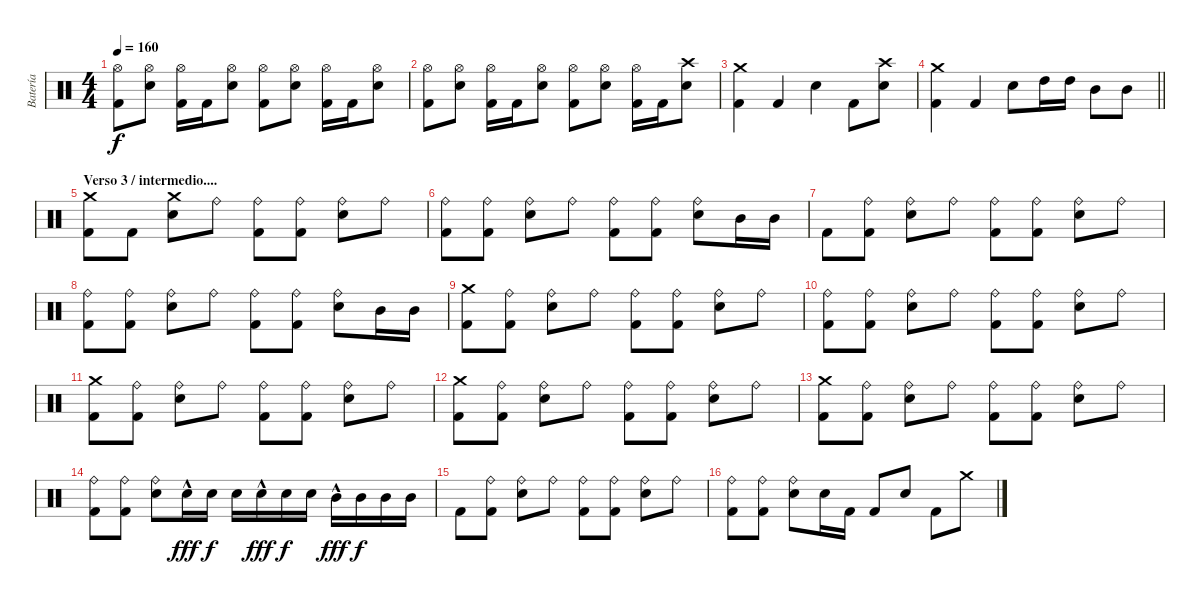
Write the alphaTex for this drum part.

\track ("Batería" "Batería") {instrument percussion}
\staff {score}
\articulation defaults
\ts (4 4)
\tempo 160
\clef neutral
\ks c
("Hi-Hat (open)" "Kick (hit) 2").8{dy f} ("Hi-Hat (open)" "Snare (hit) 2").8 ("Hi-Hat (open)" "Kick (hit) 2").16 "Kick (hit) 2".16 ("Hi-Hat (open)" "Snare (hit) 2").8 ("Hi-Hat (open)" "Kick (hit) 2").8 ("Hi-Hat (open)" "Snare (hit) 2").8 ("Hi-Hat (open)" "Kick (hit) 2").16 "Kick (hit) 2".16 ("Hi-Hat (open)" "Snare (hit) 2").8 |
("Hi-Hat (open)" "Kick (hit) 2").8 ("Hi-Hat (open)" "Snare (hit) 2").8 ("Hi-Hat (open)" "Kick (hit) 2").16 "Kick (hit) 2".16 ("Hi-Hat (open)" "Snare (hit) 2").8 ("Hi-Hat (open)" "Kick (hit) 2").8 ("Hi-Hat (open)" "Snare (hit) 2").8 ("Hi-Hat (open)" "Kick (hit) 2").16 "Kick (hit) 2".16 ("Crash high (hit)" "Snare (hit) 2").8 |
("Crash medium (hit)" "Kick (hit) 2").4 "Kick (hit) 2".4 "Snare (hit) 2".4 "Kick (hit) 2".8 ("Crash high (hit)" "Snare (hit) 2").8 |
\barLineRight lightlight
("Crash medium (hit)" "Kick (hit) 2").4 "Kick (hit) 2".4 "Snare (hit) 2".8 "High Tom (hit)".16 "High Tom (hit)".16 "Mid Tom (hit)".8 "Mid Tom (hit)".8 |
\section ("" "Verso 3 / intermedio....")
("Crash medium (hit)" "Kick (hit) 2").8 "Kick (hit) 2".8 ("Crash medium (hit)" "Snare (hit) 2").8 "Ride (bell)".8 ("Ride (bell)" "Kick (hit) 2").8 ("Ride (bell)" "Kick (hit) 2").8 ("Ride (bell)" "Snare (hit) 2").8 "Ride (bell)".8 |
("Ride (bell)" "Kick (hit) 2").8 ("Ride (bell)" "Kick (hit) 2").8 ("Ride (bell)" "Snare (hit) 2").8 "Ride (bell)".8 ("Ride (bell)" "Kick (hit) 2").8 ("Ride (bell)" "Kick (hit) 2").8 ("Ride (bell)" "Snare (hit) 2").8 "Mid Tom (hit)".16 "Mid Tom (hit)".16 |
"Kick (hit) 2".8 ("Ride (bell)" "Kick (hit) 2").8 ("Ride (bell)" "Snare (hit) 2").8 "Ride (bell)".8 ("Ride (bell)" "Kick (hit) 2").8 ("Ride (bell)" "Kick (hit) 2").8 ("Ride (bell)" "Snare (hit) 2").8 "Ride (bell)".8 |
("Ride (bell)" "Kick (hit) 2").8 ("Ride (bell)" "Kick (hit) 2").8 ("Ride (bell)" "Snare (hit) 2").8 "Ride (bell)".8 ("Ride (bell)" "Kick (hit) 2").8 ("Ride (bell)" "Kick (hit) 2").8 ("Ride (bell)" "Snare (hit) 2").8 "Mid Tom (hit)".16 "Mid Tom (hit)".16 |
("Crash medium (hit)" "Kick (hit) 2").8 ("Ride (bell)" "Kick (hit) 2").8 ("Ride (bell)" "Snare (hit) 2").8 "Ride (bell)".8 ("Ride (bell)" "Kick (hit) 2").8 ("Ride (bell)" "Kick (hit) 2").8 ("Ride (bell)" "Snare (hit) 2").8 "Ride (bell)".8 |
("Ride (bell)" "Kick (hit) 2").8 ("Ride (bell)" "Kick (hit) 2").8 ("Ride (bell)" "Snare (hit) 2").8 "Ride (bell)".8 ("Ride (bell)" "Kick (hit) 2").8 ("Ride (bell)" "Kick (hit) 2").8 ("Ride (bell)" "Snare (hit) 2").8 "Ride (bell)".8 |
("Crash medium (hit)" "Kick (hit) 2").8 ("Ride (bell)" "Kick (hit) 2").8 ("Ride (bell)" "Snare (hit) 2").8 "Ride (bell)".8 ("Ride (bell)" "Kick (hit) 2").8 ("Ride (bell)" "Kick (hit) 2").8 ("Ride (bell)" "Snare (hit) 2").8 "Ride (bell)".8 |
("Crash medium (hit)" "Kick (hit) 2").8 ("Ride (bell)" "Kick (hit) 2").8 ("Ride (bell)" "Snare (hit) 2").8 "Ride (bell)".8 ("Ride (bell)" "Kick (hit) 2").8 ("Ride (bell)" "Kick (hit) 2").8 ("Ride (bell)" "Snare (hit) 2").8 "Ride (bell)".8 |
("Crash medium (hit)" "Kick (hit) 2").8 ("Ride (bell)" "Kick (hit) 2").8 ("Ride (bell)" "Snare (hit) 2").8 "Ride (bell)".8 ("Ride (bell)" "Kick (hit) 2").8 ("Ride (bell)" "Kick (hit) 2").8 ("Ride (bell)" "Snare (hit) 2").8 "Ride (bell)".8 |
("Ride (bell)" "Kick (hit) 2").8 ("Ride (bell)" "Kick (hit) 2").8 ("Ride (bell)" "Snare (hit) 2").8 "Snare (hit) 2"{hac}.16{dy fff} "Snare (hit) 2".16{dy f} "Snare (hit) 2".16 "Snare (hit) 2"{hac}.16{dy fff} "Snare (hit) 2".16{dy f} "Snare (hit) 2".16 "Mid Tom (hit)"{hac}.16{dy fff} "Mid Tom (hit)".16{dy f} "Mid Tom (hit)".16 "Mid Tom (hit)".16 |
"Kick (hit) 2".8 ("Ride (bell)" "Kick (hit) 2").8 ("Ride (bell)" "Snare (hit) 2").8 "Ride (bell)".8 ("Ride (bell)" "Kick (hit) 2").8 ("Ride (bell)" "Kick (hit) 2").8 ("Ride (bell)" "Snare (hit) 2").8 "Ride (bell)".8 |
("Ride (bell)" "Kick (hit) 2").8 ("Ride (bell)" "Kick (hit) 2").8 ("Ride (bell)" "Snare (hit) 2").8 "Snare (hit) 2".16 "Kick (hit) 2".16 "Kick (hit) 2".8 "Snare (hit) 2".8 "Kick (hit) 2".8 "Crash medium (hit)".8
